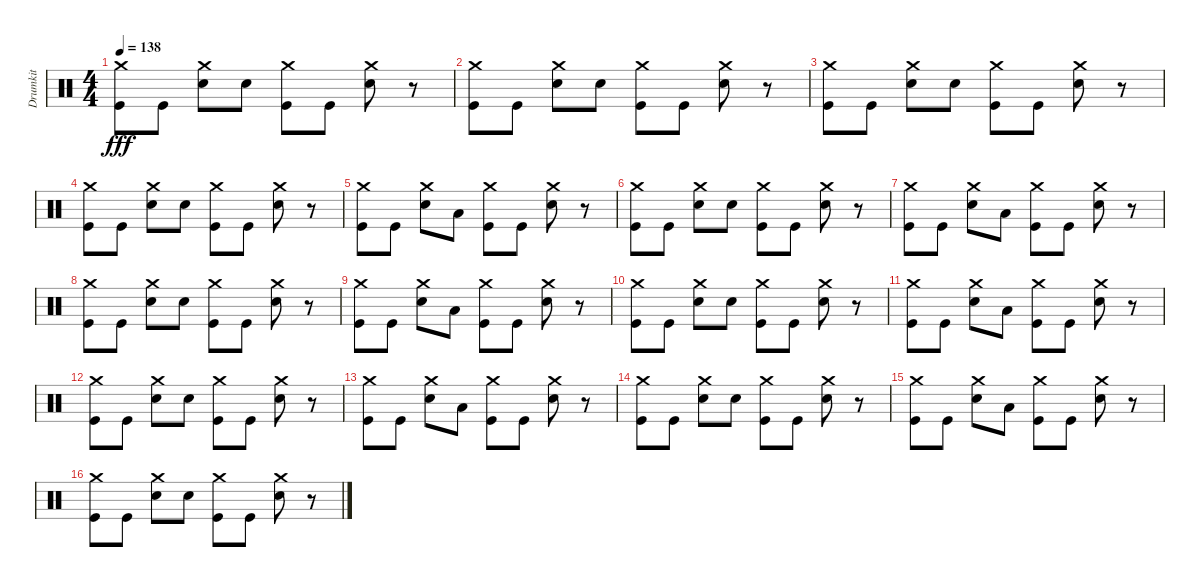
\track ("Drumkit" "Drumkit") {instrument percussion}
\staff {score}
\articulation defaults
\ts (4 4)
\tempo 138
\clef neutral
\ks c
("Crash medium (hit)" "Kick (hit)").8{dy fff} "Kick (hit)".8 ("Crash medium (hit)" "Snare (hit) 2").8 "Snare (hit) 2".8 ("Crash medium (hit)" "Kick (hit)").8 "Kick (hit)".8 ("Crash medium (hit)" "Snare (hit) 2").8 r.8 |
("Crash medium (hit)" "Kick (hit)").8 "Kick (hit)".8 ("Crash medium (hit)" "Snare (hit) 2").8 "Snare (hit) 2".8 ("Crash medium (hit)" "Kick (hit)").8 "Kick (hit)".8 ("Crash medium (hit)" "Snare (hit) 2").8 r.8 |
("Crash medium (hit)" "Kick (hit)").8 "Kick (hit)".8 ("Crash medium (hit)" "Snare (hit) 2").8 "Snare (hit) 2".8 ("Crash medium (hit)" "Kick (hit)").8 "Kick (hit)".8 ("Crash medium (hit)" "Snare (hit) 2").8 r.8 |
("Crash medium (hit)" "Kick (hit)").8 "Kick (hit)".8 ("Crash medium (hit)" "Snare (hit) 2").8 "Snare (hit) 2".8 ("Crash medium (hit)" "Kick (hit)").8 "Kick (hit)".8 ("Crash medium (hit)" "Snare (hit) 2").8 r.8 |
("Crash medium (hit)" "Kick (hit)").8 "Kick (hit)".8 ("Crash medium (hit)" "Snare (hit) 2").8 "Low Floor Tom (hit)".8 ("Crash medium (hit)" "Kick (hit)").8 "Kick (hit)".8 ("Crash medium (hit)" "Snare (hit) 2").8 r.8 |
("Crash medium (hit)" "Kick (hit)").8 "Kick (hit)".8 ("Crash medium (hit)" "Snare (hit) 2").8 "Snare (hit) 2".8 ("Crash medium (hit)" "Kick (hit)").8 "Kick (hit)".8 ("Crash medium (hit)" "Snare (hit) 2").8 r.8 |
("Crash medium (hit)" "Kick (hit)").8 "Kick (hit)".8 ("Crash medium (hit)" "Snare (hit) 2").8 "Low Floor Tom (hit)".8 ("Crash medium (hit)" "Kick (hit)").8 "Kick (hit)".8 ("Crash medium (hit)" "Snare (hit) 2").8 r.8 |
("Crash medium (hit)" "Kick (hit)").8 "Kick (hit)".8 ("Crash medium (hit)" "Snare (hit) 2").8 "Snare (hit) 2".8 ("Crash medium (hit)" "Kick (hit)").8 "Kick (hit)".8 ("Crash medium (hit)" "Snare (hit) 2").8 r.8 |
("Crash medium (hit)" "Kick (hit)").8 "Kick (hit)".8 ("Crash medium (hit)" "Snare (hit) 2").8 "Low Floor Tom (hit)".8 ("Crash medium (hit)" "Kick (hit)").8 "Kick (hit)".8 ("Crash medium (hit)" "Snare (hit) 2").8 r.8 |
("Crash medium (hit)" "Kick (hit)").8 "Kick (hit)".8 ("Crash medium (hit)" "Snare (hit) 2").8 "Snare (hit) 2".8 ("Crash medium (hit)" "Kick (hit)").8 "Kick (hit)".8 ("Crash medium (hit)" "Snare (hit) 2").8 r.8 |
("Crash medium (hit)" "Kick (hit)").8 "Kick (hit)".8 ("Crash medium (hit)" "Snare (hit) 2").8 "Low Floor Tom (hit)".8 ("Crash medium (hit)" "Kick (hit)").8 "Kick (hit)".8 ("Crash medium (hit)" "Snare (hit) 2").8 r.8 |
("Crash medium (hit)" "Kick (hit)").8 "Kick (hit)".8 ("Crash medium (hit)" "Snare (hit) 2").8 "Snare (hit) 2".8 ("Crash medium (hit)" "Kick (hit)").8 "Kick (hit)".8 ("Crash medium (hit)" "Snare (hit) 2").8 r.8 |
("Crash medium (hit)" "Kick (hit)").8 "Kick (hit)".8 ("Crash medium (hit)" "Snare (hit) 2").8 "Low Floor Tom (hit)".8 ("Crash medium (hit)" "Kick (hit)").8 "Kick (hit)".8 ("Crash medium (hit)" "Snare (hit) 2").8 r.8 |
("Crash medium (hit)" "Kick (hit)").8 "Kick (hit)".8 ("Crash medium (hit)" "Snare (hit) 2").8 "Snare (hit) 2".8 ("Crash medium (hit)" "Kick (hit)").8 "Kick (hit)".8 ("Crash medium (hit)" "Snare (hit) 2").8 r.8 |
("Crash medium (hit)" "Kick (hit)").8 "Kick (hit)".8 ("Crash medium (hit)" "Snare (hit) 2").8 "Low Floor Tom (hit)".8 ("Crash medium (hit)" "Kick (hit)").8 "Kick (hit)".8 ("Crash medium (hit)" "Snare (hit) 2").8 r.8 |
("Crash medium (hit)" "Kick (hit)").8 "Kick (hit)".8 ("Crash medium (hit)" "Snare (hit) 2").8 "Snare (hit) 2".8 ("Crash medium (hit)" "Kick (hit)").8 "Kick (hit)".8 ("Crash medium (hit)" "Snare (hit) 2").8 r.8
